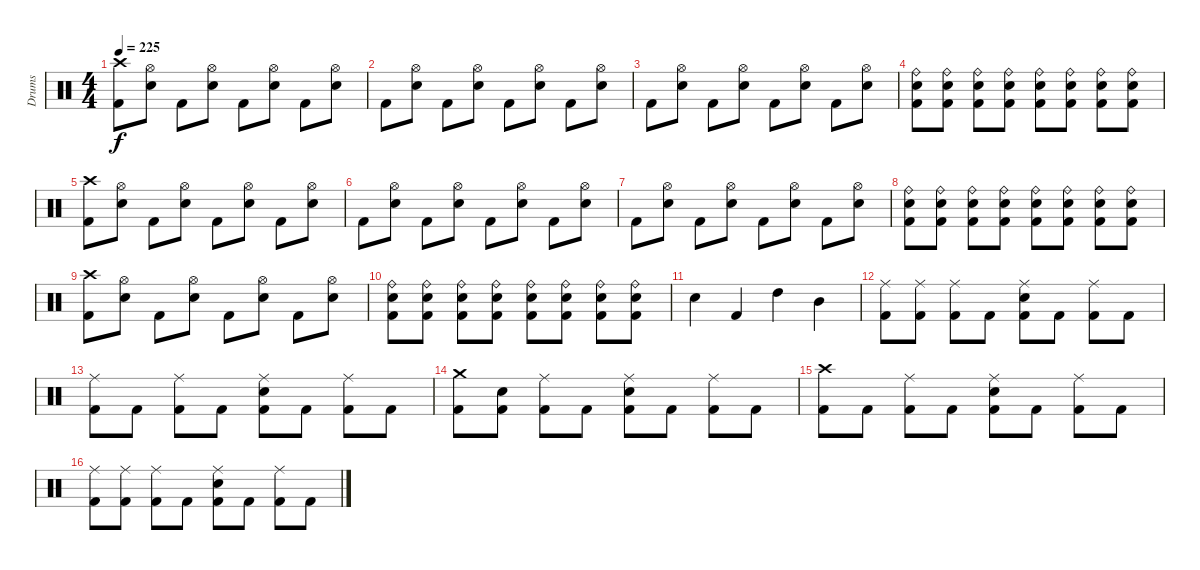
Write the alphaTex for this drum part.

\track ("Drums" "Drums") {instrument percussion}
\staff {score}
\articulation defaults
\ts (4 4)
\tempo 225
\clef neutral
\ks c
("Crash high (hit)" "Kick (hit) 2").8{dy f} ("Hi-Hat (open)" "Electric Snare (hit)").8 "Kick (hit) 2".8 ("Hi-Hat (open)" "Electric Snare (hit)").8 "Kick (hit) 2".8 ("Hi-Hat (open)" "Electric Snare (hit)").8 "Kick (hit) 2".8 ("Hi-Hat (open)" "Electric Snare (hit)").8 |
"Kick (hit) 2".8 ("Hi-Hat (open)" "Electric Snare (hit)").8 "Kick (hit) 2".8 ("Hi-Hat (open)" "Electric Snare (hit)").8 "Kick (hit) 2".8 ("Hi-Hat (open)" "Electric Snare (hit)").8 "Kick (hit) 2".8 ("Hi-Hat (open)" "Electric Snare (hit)").8 |
"Kick (hit) 2".8 ("Hi-Hat (open)" "Electric Snare (hit)").8 "Kick (hit) 2".8 ("Hi-Hat (open)" "Electric Snare (hit)").8 "Kick (hit) 2".8 ("Hi-Hat (open)" "Electric Snare (hit)").8 "Kick (hit) 2".8 ("Hi-Hat (open)" "Electric Snare (hit)").8 |
("Ride (bell)" "Electric Snare (hit)" "Kick (hit) 2").8 ("Ride (bell)" "Electric Snare (hit)" "Kick (hit) 2").8 ("Ride (bell)" "Electric Snare (hit)" "Kick (hit) 2").8 ("Ride (bell)" "Electric Snare (hit)" "Kick (hit) 2").8 ("Ride (bell)" "Electric Snare (hit)" "Kick (hit) 2").8 ("Ride (bell)" "Electric Snare (hit)" "Kick (hit) 2").8 ("Ride (bell)" "Electric Snare (hit)" "Kick (hit) 2").8 ("Ride (bell)" "Electric Snare (hit)" "Kick (hit) 2").8 |
("Crash high (hit)" "Kick (hit) 2").8 ("Hi-Hat (open)" "Electric Snare (hit)").8 "Kick (hit) 2".8 ("Hi-Hat (open)" "Electric Snare (hit)").8 "Kick (hit) 2".8 ("Hi-Hat (open)" "Electric Snare (hit)").8 "Kick (hit) 2".8 ("Hi-Hat (open)" "Electric Snare (hit)").8 |
"Kick (hit) 2".8 ("Hi-Hat (open)" "Electric Snare (hit)").8 "Kick (hit) 2".8 ("Hi-Hat (open)" "Electric Snare (hit)").8 "Kick (hit) 2".8 ("Hi-Hat (open)" "Electric Snare (hit)").8 "Kick (hit) 2".8 ("Hi-Hat (open)" "Electric Snare (hit)").8 |
"Kick (hit) 2".8 ("Hi-Hat (open)" "Electric Snare (hit)").8 "Kick (hit) 2".8 ("Hi-Hat (open)" "Electric Snare (hit)").8 "Kick (hit) 2".8 ("Hi-Hat (open)" "Electric Snare (hit)").8 "Kick (hit) 2".8 ("Hi-Hat (open)" "Electric Snare (hit)").8 |
("Ride (bell)" "Electric Snare (hit)" "Kick (hit) 2").8 ("Ride (bell)" "Electric Snare (hit)" "Kick (hit) 2").8 ("Ride (bell)" "Electric Snare (hit)" "Kick (hit) 2").8 ("Ride (bell)" "Electric Snare (hit)" "Kick (hit) 2").8 ("Ride (bell)" "Electric Snare (hit)" "Kick (hit) 2").8 ("Ride (bell)" "Electric Snare (hit)" "Kick (hit) 2").8 ("Ride (bell)" "Electric Snare (hit)" "Kick (hit) 2").8 ("Ride (bell)" "Electric Snare (hit)" "Kick (hit) 2").8 |
("Crash high (hit)" "Kick (hit) 2").8 ("Hi-Hat (open)" "Electric Snare (hit)").8 "Kick (hit) 2".8 ("Hi-Hat (open)" "Electric Snare (hit)").8 "Kick (hit) 2".8 ("Hi-Hat (open)" "Electric Snare (hit)").8 "Kick (hit) 2".8 ("Hi-Hat (open)" "Electric Snare (hit)").8 |
("Ride (bell)" "Electric Snare (hit)" "Kick (hit) 2").8 ("Ride (bell)" "Electric Snare (hit)" "Kick (hit) 2").8 ("Ride (bell)" "Electric Snare (hit)" "Kick (hit) 2").8 ("Ride (bell)" "Electric Snare (hit)" "Kick (hit) 2").8 ("Ride (bell)" "Electric Snare (hit)" "Kick (hit) 2").8 ("Ride (bell)" "Electric Snare (hit)" "Kick (hit) 2").8 ("Ride (bell)" "Electric Snare (hit)" "Kick (hit) 2").8 ("Ride (bell)" "Electric Snare (hit)" "Kick (hit) 2").8 |
"Electric Snare (hit)".4 "Kick (hit) 2".4 "High Tom (hit)".4 "Mid Tom (hit)".4 |
("Ride (middle)" "Kick (hit) 2").8 ("Ride (middle)" "Kick (hit) 2").8 ("Ride (middle)" "Kick (hit) 2").8 "Kick (hit) 2".8 ("Ride (middle)" "Electric Snare (hit)" "Kick (hit) 2").8 "Kick (hit) 2".8 ("Ride (middle)" "Kick (hit) 2").8 "Kick (hit) 2".8 |
("Ride (middle)" "Kick (hit) 2").8 "Kick (hit) 2".8 ("Ride (middle)" "Kick (hit) 2").8 "Kick (hit) 2".8 ("Ride (middle)" "Electric Snare (hit)" "Kick (hit) 2").8 "Kick (hit) 2".8 ("Ride (middle)" "Kick (hit) 2").8 "Kick (hit) 2".8 |
("Crash medium (hit)" "Kick (hit) 2").8 ("Electric Snare (hit)" "Kick (hit) 2").8 ("Ride (middle)" "Kick (hit) 2").8 "Kick (hit) 2".8 ("Ride (middle)" "Electric Snare (hit)" "Kick (hit) 2").8 "Kick (hit) 2".8 ("Ride (middle)" "Kick (hit) 2").8 "Kick (hit) 2".8 |
("Crash high (hit)" "Kick (hit) 2").8 "Kick (hit) 2".8 ("Ride (middle)" "Kick (hit) 2").8 "Kick (hit) 2".8 ("Ride (middle)" "Electric Snare (hit)" "Kick (hit) 2").8 "Kick (hit) 2".8 ("Ride (middle)" "Kick (hit) 2").8 "Kick (hit) 2".8 |
("Ride (middle)" "Kick (hit) 2").8 ("Ride (middle)" "Kick (hit) 2").8 ("Ride (middle)" "Kick (hit) 2").8 "Kick (hit) 2".8 ("Ride (middle)" "Electric Snare (hit)" "Kick (hit) 2").8 "Kick (hit) 2".8 ("Ride (middle)" "Kick (hit) 2").8 "Kick (hit) 2".8
